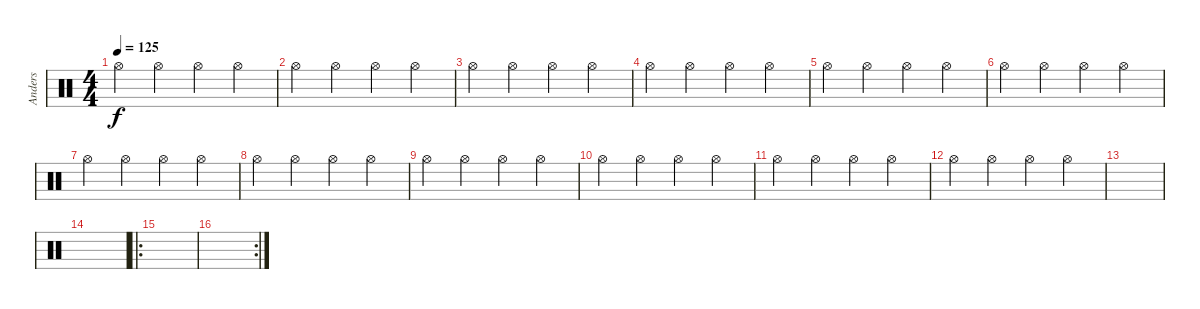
\track ("Anders" "Anders") {instrument percussion}
\staff {score}
\articulation defaults
\ts (4 4)
\tempo 125
\clef neutral
\ks c "Hi-Hat (open)".4{dy f} "Hi-Hat (open)".4 "Hi-Hat (open)".4 "Hi-Hat (open)".4
|
"Hi-Hat (open)".4 "Hi-Hat (open)".4 "Hi-Hat (open)".4 "Hi-Hat (open)".4 |
"Hi-Hat (open)".4 "Hi-Hat (open)".4 "Hi-Hat (open)".4 "Hi-Hat (open)".4 |
"Hi-Hat (open)".4 "Hi-Hat (open)".4 "Hi-Hat (open)".4 "Hi-Hat (open)".4 |
"Hi-Hat (open)".4 "Hi-Hat (open)".4 "Hi-Hat (open)".4 "Hi-Hat (open)".4 |
"Hi-Hat (open)".4 "Hi-Hat (open)".4 "Hi-Hat (open)".4 "Hi-Hat (open)".4 |
"Hi-Hat (open)".4 "Hi-Hat (open)".4 "Hi-Hat (open)".4 "Hi-Hat (open)".4 |
"Hi-Hat (open)".4 "Hi-Hat (open)".4 "Hi-Hat (open)".4 "Hi-Hat (open)".4 |
"Hi-Hat (open)".4 "Hi-Hat (open)".4 "Hi-Hat (open)".4 "Hi-Hat (open)".4 |
"Hi-Hat (open)".4 "Hi-Hat (open)".4 "Hi-Hat (open)".4 "Hi-Hat (open)".4 |
"Hi-Hat (open)".4 "Hi-Hat (open)".4 "Hi-Hat (open)".4 "Hi-Hat (open)".4 |
"Hi-Hat (open)".4 "Hi-Hat (open)".4 "Hi-Hat (open)".4 "Hi-Hat (open)".4 |
|
|
\ro
|
\rc 2
